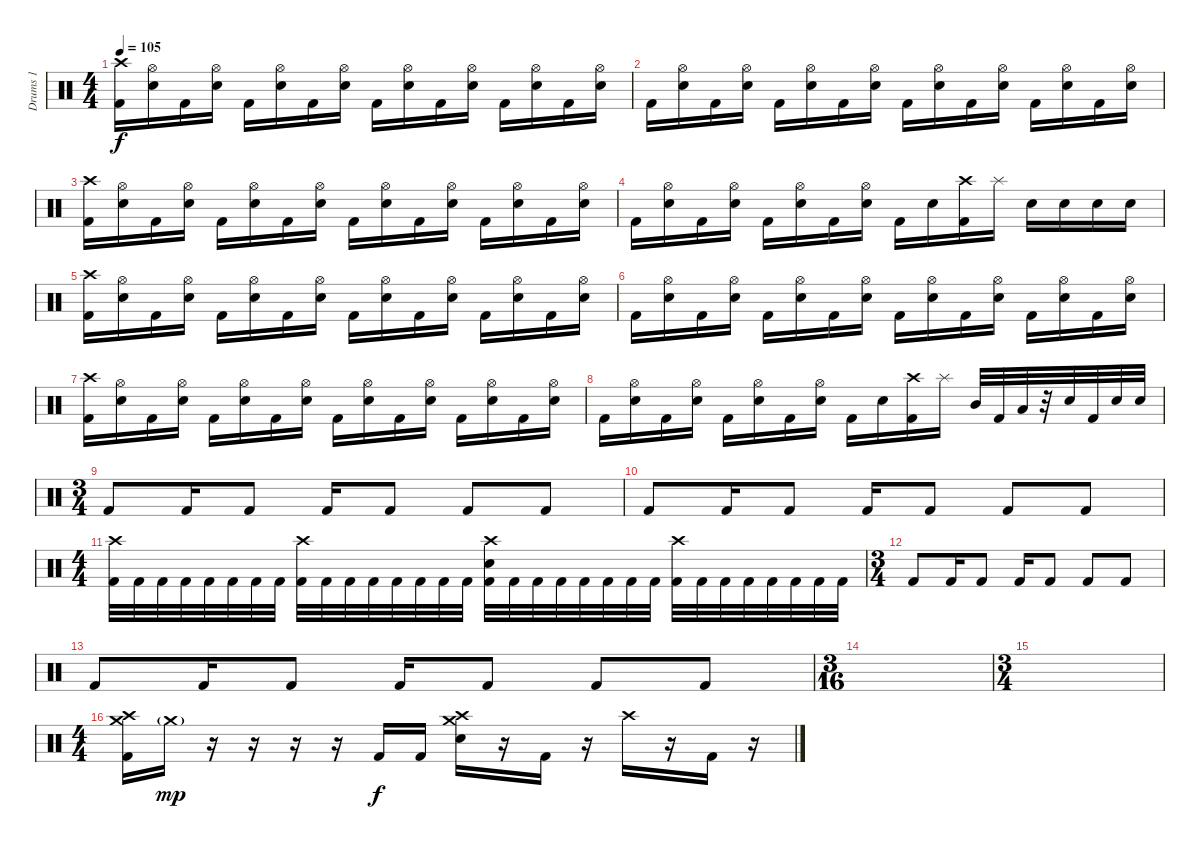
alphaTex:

\track ("Drums 1" "Drums 1") {instrument percussion}
\staff
\articulation defaults
\ts (4 4)
\tempo 105
\clef neutral
\ks c
("Crash high (hit)" "Kick (hit) 2").16{dy f} ("Hi-Hat (open)" "Electric Snare (hit)").16 "Kick (hit) 2".16 ("Hi-Hat (open)" "Electric Snare (hit)").16 "Kick (hit) 2".16 ("Hi-Hat (open)" "Electric Snare (hit)").16 "Kick (hit) 2".16 ("Hi-Hat (open)" "Electric Snare (hit)").16 "Kick (hit) 2".16 ("Hi-Hat (open)" "Electric Snare (hit)").16 "Kick (hit) 2".16 ("Hi-Hat (open)" "Electric Snare (hit)").16 "Kick (hit) 2".16 ("Hi-Hat (open)" "Electric Snare (hit)").16 "Kick (hit) 2".16 ("Hi-Hat (open)" "Electric Snare (hit)").16 |
"Kick (hit) 2".16 ("Hi-Hat (open)" "Electric Snare (hit)").16 "Kick (hit) 2".16 ("Hi-Hat (open)" "Electric Snare (hit)").16 "Kick (hit) 2".16 ("Hi-Hat (open)" "Electric Snare (hit)").16 "Kick (hit) 2".16 ("Hi-Hat (open)" "Electric Snare (hit)").16 "Kick (hit) 2".16 ("Hi-Hat (open)" "Electric Snare (hit)").16 "Kick (hit) 2".16 ("Hi-Hat (open)" "Electric Snare (hit)").16 "Kick (hit) 2".16 ("Hi-Hat (open)" "Electric Snare (hit)").16 "Kick (hit) 2".16 ("Hi-Hat (open)" "Electric Snare (hit)").16 |
("Crash high (hit)" "Kick (hit) 2").16 ("Hi-Hat (open)" "Electric Snare (hit)").16 "Kick (hit) 2".16 ("Hi-Hat (open)" "Electric Snare (hit)").16 "Kick (hit) 2".16 ("Hi-Hat (open)" "Electric Snare (hit)").16 "Kick (hit) 2".16 ("Hi-Hat (open)" "Electric Snare (hit)").16 "Kick (hit) 2".16 ("Hi-Hat (open)" "Electric Snare (hit)").16 "Kick (hit) 2".16 ("Hi-Hat (open)" "Electric Snare (hit)").16 "Kick (hit) 2".16 ("Hi-Hat (open)" "Electric Snare (hit)").16 "Kick (hit) 2".16 ("Hi-Hat (open)" "Electric Snare (hit)").16 |
"Kick (hit) 2".16 ("Hi-Hat (open)" "Electric Snare (hit)").16 "Kick (hit) 2".16 ("Hi-Hat (open)" "Electric Snare (hit)").16 "Kick (hit) 2".16 ("Hi-Hat (open)" "Electric Snare (hit)").16 "Kick (hit) 2".16 ("Hi-Hat (open)" "Electric Snare (hit)").16 "Kick (hit) 2".16 "Electric Snare (hit)".16 ("Crash high (hit)" "Kick (hit) 2").16 "Splash (hit)".16 "Electric Snare (hit)".16 "Electric Snare (hit)".16 "Electric Snare (hit)".16 "Electric Snare (hit)".16 |
("Crash high (hit)" "Kick (hit) 2").16 ("Hi-Hat (open)" "Electric Snare (hit)").16 "Kick (hit) 2".16 ("Hi-Hat (open)" "Electric Snare (hit)").16 "Kick (hit) 2".16 ("Hi-Hat (open)" "Electric Snare (hit)").16 "Kick (hit) 2".16 ("Hi-Hat (open)" "Electric Snare (hit)").16 "Kick (hit) 2".16 ("Hi-Hat (open)" "Electric Snare (hit)").16 "Kick (hit) 2".16 ("Hi-Hat (open)" "Electric Snare (hit)").16 "Kick (hit) 2".16 ("Hi-Hat (open)" "Electric Snare (hit)").16 "Kick (hit) 2".16 ("Hi-Hat (open)" "Electric Snare (hit)").16 |
"Kick (hit) 2".16 ("Hi-Hat (open)" "Electric Snare (hit)").16 "Kick (hit) 2".16 ("Hi-Hat (open)" "Electric Snare (hit)").16 "Kick (hit) 2".16 ("Hi-Hat (open)" "Electric Snare (hit)").16 "Kick (hit) 2".16 ("Hi-Hat (open)" "Electric Snare (hit)").16 "Kick (hit) 2".16 ("Hi-Hat (open)" "Electric Snare (hit)").16 "Kick (hit) 2".16 ("Hi-Hat (open)" "Electric Snare (hit)").16 "Kick (hit) 2".16 ("Hi-Hat (open)" "Electric Snare (hit)").16 "Kick (hit) 2".16 ("Hi-Hat (open)" "Electric Snare (hit)").16 |
("Crash high (hit)" "Kick (hit) 2").16 ("Hi-Hat (open)" "Electric Snare (hit)").16 "Kick (hit) 2".16 ("Hi-Hat (open)" "Electric Snare (hit)").16 "Kick (hit) 2".16 ("Hi-Hat (open)" "Electric Snare (hit)").16 "Kick (hit) 2".16 ("Hi-Hat (open)" "Electric Snare (hit)").16 "Kick (hit) 2".16 ("Hi-Hat (open)" "Electric Snare (hit)").16 "Kick (hit) 2".16 ("Hi-Hat (open)" "Electric Snare (hit)").16 "Kick (hit) 2".16 ("Hi-Hat (open)" "Electric Snare (hit)").16 "Kick (hit) 2".16 ("Hi-Hat (open)" "Electric Snare (hit)").16 |
"Kick (hit) 2".16 ("Hi-Hat (open)" "Electric Snare (hit)").16 "Kick (hit) 2".16 ("Hi-Hat (open)" "Electric Snare (hit)").16 "Kick (hit) 2".16 ("Hi-Hat (open)" "Electric Snare (hit)").16 "Kick (hit) 2".16 ("Hi-Hat (open)" "Electric Snare (hit)").16 "Kick (hit) 2".16 "Electric Snare (hit)".16 ("Crash high (hit)" "Kick (hit) 2").16 "Splash (hit)".16 "Mid Tom (hit)".32 "Kick (hit) 2".32 "Low Tom (hit)".32 r.32 "Electric Snare (hit)".32 "Kick (hit) 2".32 "Electric Snare (hit)".32 "Electric Snare (hit)".32 |
\ts (3 4)
"Kick (hit) 2".8 "Kick (hit) 2".16 "Kick (hit) 2".8 "Kick (hit) 2".16 "Kick (hit) 2".8 "Kick (hit) 2".8 "Kick (hit) 2".8 |
"Kick (hit) 2".8 "Kick (hit) 2".16 "Kick (hit) 2".8 "Kick (hit) 2".16 "Kick (hit) 2".8 "Kick (hit) 2".8 "Kick (hit) 2".8 |
\ts (4 4)
("Crash high (hit)" "Kick (hit) 2").32 "Kick (hit) 2".32 "Kick (hit) 2".32 "Kick (hit) 2".32 "Kick (hit) 2".32 "Kick (hit) 2".32 "Kick (hit) 2".32 "Kick (hit) 2".32 ("Crash high (hit)" "Kick (hit) 2").32 "Kick (hit) 2".32 "Kick (hit) 2".32 "Kick (hit) 2".32 "Kick (hit) 2".32 "Kick (hit) 2".32 "Kick (hit) 2".32 "Kick (hit) 2".32 ("Crash high (hit)" "Electric Snare (hit)" "Kick (hit) 2").32 "Kick (hit) 2".32 "Kick (hit) 2".32 "Kick (hit) 2".32 "Kick (hit) 2".32 "Kick (hit) 2".32 "Kick (hit) 2".32 "Kick (hit) 2".32 ("Crash high (hit)" "Kick (hit) 2").32 "Kick (hit) 2".32 "Kick (hit) 2".32 "Kick (hit) 2".32 "Kick (hit) 2".32 "Kick (hit) 2".32 "Kick (hit) 2".32 "Kick (hit) 2".32 |
\ts (3 4)
"Kick (hit) 2".8 "Kick (hit) 2".16 "Kick (hit) 2".8 "Kick (hit) 2".16 "Kick (hit) 2".8 "Kick (hit) 2".8 "Kick (hit) 2".8 |
"Kick (hit) 2".8 "Kick (hit) 2".16 "Kick (hit) 2".8 "Kick (hit) 2".16 "Kick (hit) 2".8 "Kick (hit) 2".8 "Kick (hit) 2".8 |
\ts (3 16)
|
\ts (3 4)
|
\ts (4 4)
("Crash medium (hit)" "Crash high (hit)" "Kick (hit) 2").16 "Crash medium (hit)"{g}.16{dy mp} r.16 r.16 r.16 r.16 "Kick (hit) 2".16{dy f} "Kick (hit) 2".16 ("Crash high (hit)" "Crash medium (hit)" "Electric Snare (hit)").16 r.16 "Kick (hit) 2".16 r.16 "Crash high (hit)".16 r.16 "Kick (hit) 2".16 r.16
